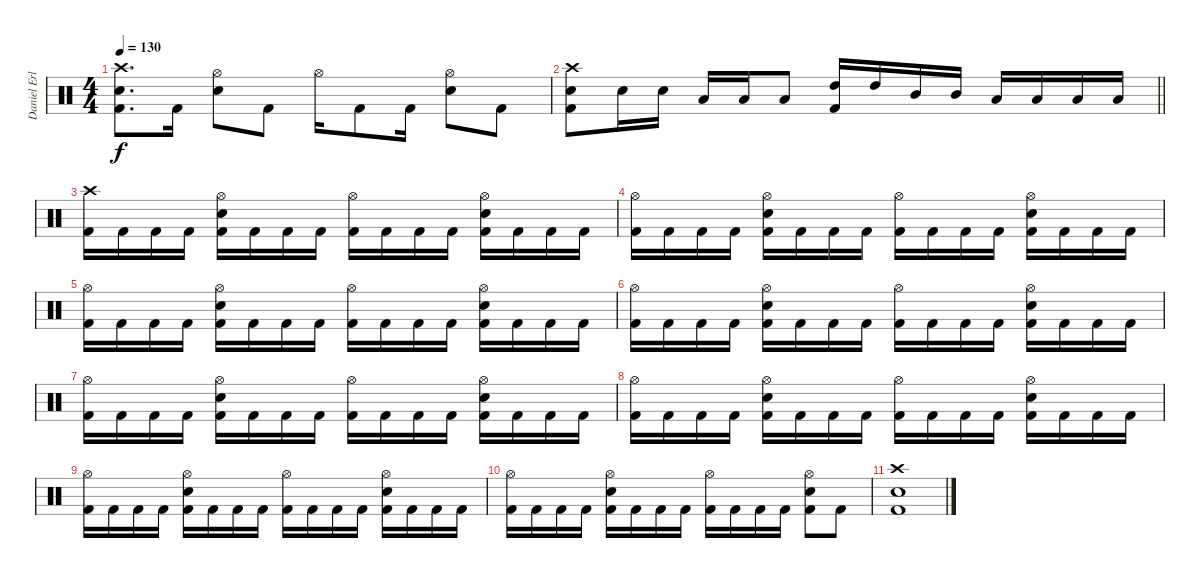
\track ("Daniel Erlandsson" "Daniel Erl") {instrument percussion}
\staff {score}
\articulation defaults
\ts (4 4)
\tempo 130
\clef neutral
\ks c
("Crash high (hit)" "Snare (hit) 2" "Kick (hit) 2").8{d dy f} "Kick (hit) 2".16 ("Hi-Hat (open)" "Snare (hit) 2").8 "Kick (hit) 2".8 "Hi-Hat (open)".16 "Kick (hit) 2".8 "Kick (hit) 2".16 ("Hi-Hat (open)" "Snare (hit) 2").8 "Kick (hit) 2".8 |
\barLineRight lightlight
("Crash high (hit)" "Snare (hit) 2" "Kick (hit) 2").8 "Snare (hit) 2".16 "Snare (hit) 2".16 "Low Tom (hit)".16 "Low Tom (hit)".16 "Low Tom (hit)".8 ("High Tom (hit)" "Kick (hit) 2").16 "High Tom (hit)".16 "Mid Tom (hit)".16 "Mid Tom (hit)".16 "Low Tom (hit)".16 "Low Tom (hit)".16 "Low Floor Tom (hit)".16 "Low Floor Tom (hit)".16 |
("Crash high (hit)" "Kick (hit) 2").16 "Kick (hit) 2".16 "Kick (hit) 2".16 "Kick (hit) 2".16 ("Hi-Hat (open)" "Snare (hit) 2" "Kick (hit) 2").16 "Kick (hit) 2".16 "Kick (hit) 2".16 "Kick (hit) 2".16 ("Hi-Hat (open)" "Kick (hit) 2").16 "Kick (hit) 2".16 "Kick (hit) 2".16 "Kick (hit) 2".16 ("Hi-Hat (open)" "Snare (hit) 2" "Kick (hit) 2").16 "Kick (hit) 2".16 "Kick (hit) 2".16 "Kick (hit) 2".16 |
("Hi-Hat (open)" "Kick (hit) 2").16 "Kick (hit) 2".16 "Kick (hit) 2".16 "Kick (hit) 2".16 ("Hi-Hat (open)" "Snare (hit) 2" "Kick (hit) 2").16 "Kick (hit) 2".16 "Kick (hit) 2".16 "Kick (hit) 2".16 ("Hi-Hat (open)" "Kick (hit) 2").16 "Kick (hit) 2".16 "Kick (hit) 2".16 "Kick (hit) 2".16 ("Hi-Hat (open)" "Snare (hit) 2" "Kick (hit) 2").16 "Kick (hit) 2".16 "Kick (hit) 2".16 "Kick (hit) 2".16 |
("Hi-Hat (open)" "Kick (hit) 2").16 "Kick (hit) 2".16 "Kick (hit) 2".16 "Kick (hit) 2".16 ("Hi-Hat (open)" "Snare (hit) 2" "Kick (hit) 2").16 "Kick (hit) 2".16 "Kick (hit) 2".16 "Kick (hit) 2".16 ("Hi-Hat (open)" "Kick (hit) 2").16 "Kick (hit) 2".16 "Kick (hit) 2".16 "Kick (hit) 2".16 ("Hi-Hat (open)" "Snare (hit) 2" "Kick (hit) 2").16 "Kick (hit) 2".16 "Kick (hit) 2".16 "Kick (hit) 2".16 |
("Hi-Hat (open)" "Kick (hit) 2").16 "Kick (hit) 2".16 "Kick (hit) 2".16 "Kick (hit) 2".16 ("Hi-Hat (open)" "Snare (hit) 2" "Kick (hit) 2").16 "Kick (hit) 2".16 "Kick (hit) 2".16 "Kick (hit) 2".16 ("Hi-Hat (open)" "Kick (hit) 2").16 "Kick (hit) 2".16 "Kick (hit) 2".16 "Kick (hit) 2".16 ("Hi-Hat (open)" "Snare (hit) 2" "Kick (hit) 2").16 "Kick (hit) 2".16 "Kick (hit) 2".16 "Kick (hit) 2".16 |
("Hi-Hat (open)" "Kick (hit) 2").16 "Kick (hit) 2".16 "Kick (hit) 2".16 "Kick (hit) 2".16 ("Hi-Hat (open)" "Snare (hit) 2" "Kick (hit) 2").16 "Kick (hit) 2".16 "Kick (hit) 2".16 "Kick (hit) 2".16 ("Hi-Hat (open)" "Kick (hit) 2").16 "Kick (hit) 2".16 "Kick (hit) 2".16 "Kick (hit) 2".16 ("Hi-Hat (open)" "Snare (hit) 2" "Kick (hit) 2").16 "Kick (hit) 2".16 "Kick (hit) 2".16 "Kick (hit) 2".16 |
("Hi-Hat (open)" "Kick (hit) 2").16 "Kick (hit) 2".16 "Kick (hit) 2".16 "Kick (hit) 2".16 ("Hi-Hat (open)" "Snare (hit) 2" "Kick (hit) 2").16 "Kick (hit) 2".16 "Kick (hit) 2".16 "Kick (hit) 2".16 ("Hi-Hat (open)" "Kick (hit) 2").16 "Kick (hit) 2".16 "Kick (hit) 2".16 "Kick (hit) 2".16 ("Hi-Hat (open)" "Snare (hit) 2" "Kick (hit) 2").16 "Kick (hit) 2".16 "Kick (hit) 2".16 "Kick (hit) 2".16 |
("Hi-Hat (open)" "Kick (hit) 2").16 "Kick (hit) 2".16 "Kick (hit) 2".16 "Kick (hit) 2".16 ("Hi-Hat (open)" "Snare (hit) 2" "Kick (hit) 2").16 "Kick (hit) 2".16 "Kick (hit) 2".16 "Kick (hit) 2".16 ("Hi-Hat (open)" "Kick (hit) 2").16 "Kick (hit) 2".16 "Kick (hit) 2".16 "Kick (hit) 2".16 ("Hi-Hat (open)" "Snare (hit) 2" "Kick (hit) 2").16 "Kick (hit) 2".16 "Kick (hit) 2".16 "Kick (hit) 2".16 |
("Hi-Hat (open)" "Kick (hit) 2").16 "Kick (hit) 2".16 "Kick (hit) 2".16 "Kick (hit) 2".16 ("Hi-Hat (open)" "Snare (hit) 2" "Kick (hit) 2").16 "Kick (hit) 2".16 "Kick (hit) 2".16 "Kick (hit) 2".16 ("Hi-Hat (open)" "Kick (hit) 2").16 "Kick (hit) 2".16 "Kick (hit) 2".16 "Kick (hit) 2".16 ("Hi-Hat (open)" "Snare (hit) 2" "Kick (hit) 2").8 "Kick (hit) 2".8 |
("Crash high (hit)" "Snare (hit) 2" "Kick (hit) 2").1
